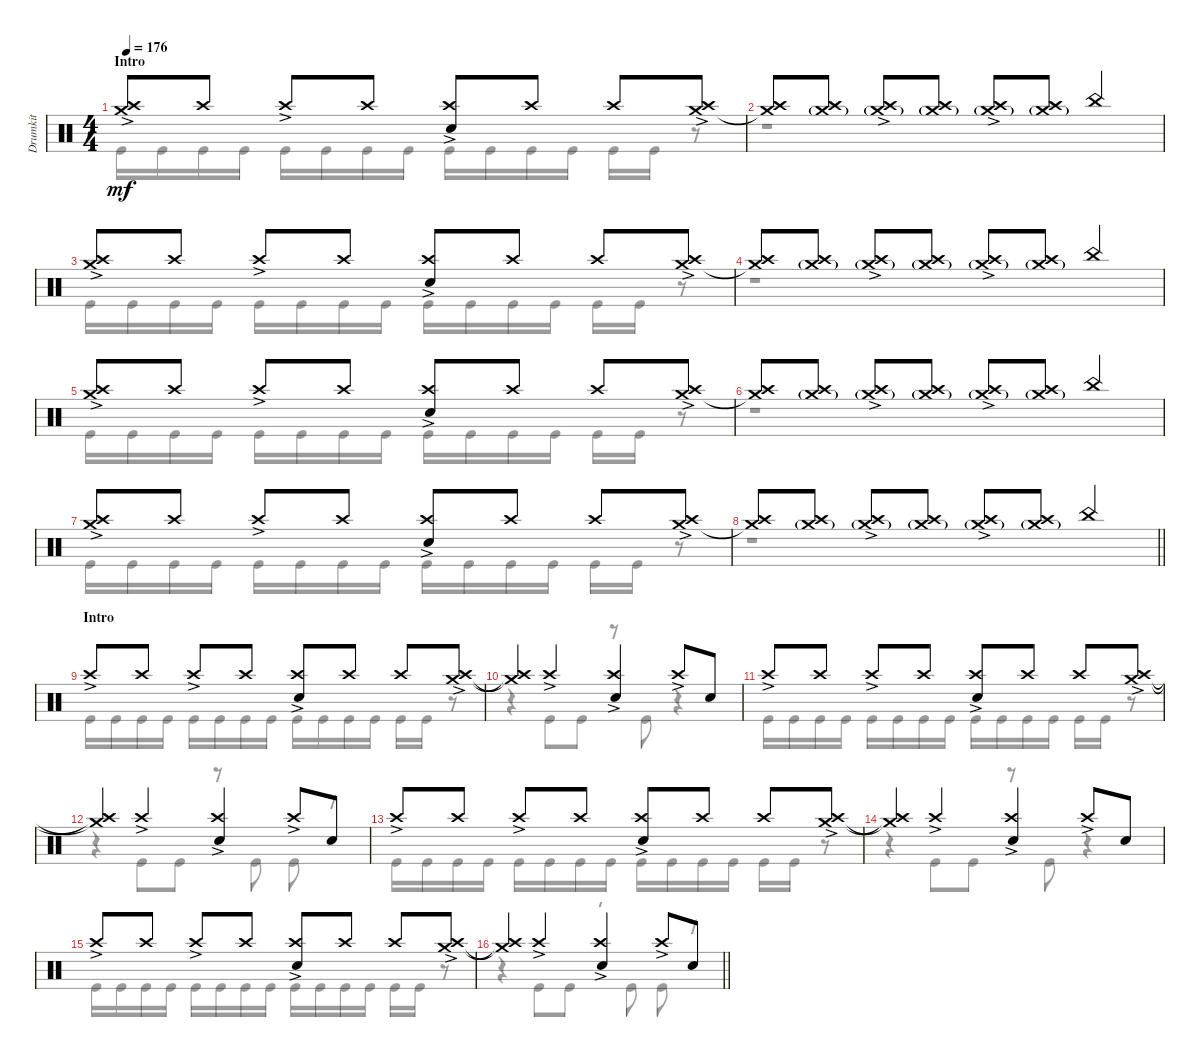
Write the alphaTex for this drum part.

\track ("Drumkit" "Drumkit") {instrument percussion}
\staff {score}
\articulation defaults
\voice
\ts (4 4)
\section ("" "Intro")
\tempo 176
\clef neutral
\ks c
("Crash medium (hit)"{ac} "Crash high (hit)"{ac}).8{dy mf} "Crash high (hit)".8 "Crash high (hit)"{ac}.8 "Crash high (hit)".8 ("Snare (hit) 2" "Crash high (hit)"{ac}).8 "Crash high (hit)".8 "Crash high (hit)".8 ("Crash high (hit)"{ac} "Crash medium (hit)"{ac}).8 |
("Crash high (hit)" "Crash medium (hit)"{t}).8 ("Crash high (hit)" "Crash medium (hit)"{g}).8 ("Crash high (hit)"{ac} "Crash medium (hit)"{g}).8 ("Crash high (hit)" "Crash medium (hit)"{g}).8 ("Crash high (hit)"{ac} "Crash medium (hit)"{g}).8 ("Crash high (hit)" "Crash medium (hit)"{g}).8 "China (hit)".4 |
("Crash medium (hit)"{ac} "Crash high (hit)"{ac}).8 "Crash high (hit)".8 "Crash high (hit)"{ac}.8 "Crash high (hit)".8 ("Snare (hit) 2" "Crash high (hit)"{ac}).8 "Crash high (hit)".8 "Crash high (hit)".8 ("Crash high (hit)"{ac} "Crash medium (hit)"{ac}).8 |
("Crash high (hit)" "Crash medium (hit)"{t}).8 ("Crash high (hit)" "Crash medium (hit)"{g}).8 ("Crash high (hit)"{ac} "Crash medium (hit)"{g}).8 ("Crash high (hit)" "Crash medium (hit)"{g}).8 ("Crash high (hit)"{ac} "Crash medium (hit)"{g}).8 ("Crash high (hit)" "Crash medium (hit)"{g}).8 "China (hit)".4 |
("Crash medium (hit)"{ac} "Crash high (hit)"{ac}).8 "Crash high (hit)".8 "Crash high (hit)"{ac}.8 "Crash high (hit)".8 ("Snare (hit) 2" "Crash high (hit)"{ac}).8 "Crash high (hit)".8 "Crash high (hit)".8 ("Crash high (hit)"{ac} "Crash medium (hit)"{ac}).8 |
("Crash high (hit)" "Crash medium (hit)"{t}).8 ("Crash high (hit)" "Crash medium (hit)"{g}).8 ("Crash high (hit)"{ac} "Crash medium (hit)"{g}).8 ("Crash high (hit)" "Crash medium (hit)"{g}).8 ("Crash high (hit)"{ac} "Crash medium (hit)"{g}).8 ("Crash high (hit)" "Crash medium (hit)"{g}).8 "China (hit)".4 |
("Crash medium (hit)"{ac} "Crash high (hit)"{ac}).8 "Crash high (hit)".8 "Crash high (hit)"{ac}.8 "Crash high (hit)".8 ("Snare (hit) 2" "Crash high (hit)"{ac}).8 "Crash high (hit)".8 "Crash high (hit)".8 ("Crash high (hit)"{ac} "Crash medium (hit)"{ac}).8 |
\barLineRight lightlight
("Crash high (hit)" "Crash medium (hit)"{t}).8 ("Crash high (hit)" "Crash medium (hit)"{g}).8 ("Crash high (hit)"{ac} "Crash medium (hit)"{g}).8 ("Crash high (hit)" "Crash medium (hit)"{g}).8 ("Crash high (hit)"{ac} "Crash medium (hit)"{g}).8 ("Crash high (hit)" "Crash medium (hit)"{g}).8 "China (hit)".4 |
\section ("" "Intro")
"Crash high (hit)"{ac}.8 "Crash high (hit)".8 "Crash high (hit)"{ac}.8 "Crash high (hit)".8 ("Snare (hit) 2" "Crash high (hit)"{ac}).8 "Crash high (hit)".8 "Crash high (hit)".8 ("Crash high (hit)"{ac} "Crash medium (hit)"{ac}).8 |
("Crash medium (hit)"{t} "Crash high (hit)"{t}).4 "Crash high (hit)"{ac}.4 ("Snare (hit) 2" "Crash high (hit)"{ac}).4 "Crash high (hit)"{ac}.8 "Snare (hit) 2".8 |
"Crash high (hit)"{ac}.8 "Crash high (hit)".8 "Crash high (hit)"{ac}.8 "Crash high (hit)".8 ("Snare (hit) 2" "Crash high (hit)"{ac}).8 "Crash high (hit)".8 "Crash high (hit)".8 ("Crash high (hit)"{ac} "Crash medium (hit)"{ac}).8 |
("Crash medium (hit)"{t} "Crash high (hit)"{t}).4 "Crash high (hit)"{ac}.4 ("Snare (hit) 2" "Crash high (hit)"{ac}).4 "Crash high (hit)"{ac}.8 "Snare (hit) 2".8 |
"Crash high (hit)"{ac}.8 "Crash high (hit)".8 "Crash high (hit)"{ac}.8 "Crash high (hit)".8 ("Snare (hit) 2" "Crash high (hit)"{ac}).8 "Crash high (hit)".8 "Crash high (hit)".8 ("Crash high (hit)"{ac} "Crash medium (hit)"{ac}).8 |
("Crash medium (hit)"{t} "Crash high (hit)"{t}).4 "Crash high (hit)"{ac}.4 ("Snare (hit) 2" "Crash high (hit)"{ac}).4 "Crash high (hit)"{ac}.8 "Snare (hit) 2".8 |
"Crash high (hit)"{ac}.8 "Crash high (hit)".8 "Crash high (hit)"{ac}.8 "Crash high (hit)".8 ("Snare (hit) 2" "Crash high (hit)"{ac}).8 "Crash high (hit)".8 "Crash high (hit)".8 ("Crash high (hit)"{ac} "Crash medium (hit)"{ac}).8 |
\barLineRight lightlight
("Crash medium (hit)"{t} "Crash high (hit)"{t}).4 "Crash high (hit)"{ac}.4 ("Snare (hit) 2" "Crash high (hit)"{ac}).4 "Crash high (hit)"{ac}.8 "Snare (hit) 2".8
\voice
\clef neutral
\ottava regular
\simile none
\ks c "Kick (hit)".16{dy mf} "Kick (hit)".16 "Kick (hit)".16 "Kick (hit)".16 "Kick (hit)".16 "Kick (hit)".16 "Kick (hit)".16 "Kick (hit)".16 "Kick (hit)".16 "Kick (hit)".16 "Kick (hit)".16 "Kick (hit)".16 "Kick (hit)".16 "Kick (hit)".16
r.8 |
r.1 |
"Kick (hit)".16 "Kick (hit)".16 "Kick (hit)".16 "Kick (hit)".16 "Kick (hit)".16 "Kick (hit)".16 "Kick (hit)".16 "Kick (hit)".16 "Kick (hit)".16 "Kick (hit)".16 "Kick (hit)".16 "Kick (hit)".16 "Kick (hit)".16 "Kick (hit)".16 r.8 |
r.1 |
"Kick (hit)".16 "Kick (hit)".16 "Kick (hit)".16 "Kick (hit)".16 "Kick (hit)".16 "Kick (hit)".16 "Kick (hit)".16 "Kick (hit)".16 "Kick (hit)".16 "Kick (hit)".16 "Kick (hit)".16 "Kick (hit)".16 "Kick (hit)".16 "Kick (hit)".16 r.8 |
r.1 |
"Kick (hit)".16 "Kick (hit)".16 "Kick (hit)".16 "Kick (hit)".16 "Kick (hit)".16 "Kick (hit)".16 "Kick (hit)".16 "Kick (hit)".16 "Kick (hit)".16 "Kick (hit)".16 "Kick (hit)".16 "Kick (hit)".16 "Kick (hit)".16 "Kick (hit)".16 r.8 |
\barLineRight lightlight
r.1 |
"Kick (hit)".16 "Kick (hit)".16 "Kick (hit)".16 "Kick (hit)".16 "Kick (hit)".16 "Kick (hit)".16 "Kick (hit)".16 "Kick (hit)".16 "Kick (hit)".16 "Kick (hit)".16 "Kick (hit)".16 "Kick (hit)".16 "Kick (hit)".16 "Kick (hit)".16 r.8 |
r.4 "Kick (hit)".8 "Kick (hit)".8 r.8 "Kick (hit)".8 r.4 |
"Kick (hit)".16 "Kick (hit)".16 "Kick (hit)".16 "Kick (hit)".16 "Kick (hit)".16 "Kick (hit)".16 "Kick (hit)".16 "Kick (hit)".16 "Kick (hit)".16 "Kick (hit)".16 "Kick (hit)".16 "Kick (hit)".16 "Kick (hit)".16 "Kick (hit)".16 r.8 |
r.4 "Kick (hit)".8 "Kick (hit)".8 r.8 "Kick (hit)".8 "Kick (hit)".8 r.8 |
"Kick (hit)".16 "Kick (hit)".16 "Kick (hit)".16 "Kick (hit)".16 "Kick (hit)".16 "Kick (hit)".16 "Kick (hit)".16 "Kick (hit)".16 "Kick (hit)".16 "Kick (hit)".16 "Kick (hit)".16 "Kick (hit)".16 "Kick (hit)".16 "Kick (hit)".16 r.8 |
r.4 "Kick (hit)".8 "Kick (hit)".8 r.8 "Kick (hit)".8 r.4 |
"Kick (hit)".16 "Kick (hit)".16 "Kick (hit)".16 "Kick (hit)".16 "Kick (hit)".16 "Kick (hit)".16 "Kick (hit)".16 "Kick (hit)".16 "Kick (hit)".16 "Kick (hit)".16 "Kick (hit)".16 "Kick (hit)".16 "Kick (hit)".16 "Kick (hit)".16 r.8 |
\barLineRight lightlight
r.4 "Kick (hit)".8 "Kick (hit)".8 r.8 "Kick (hit)".8 "Kick (hit)".8 r.8
